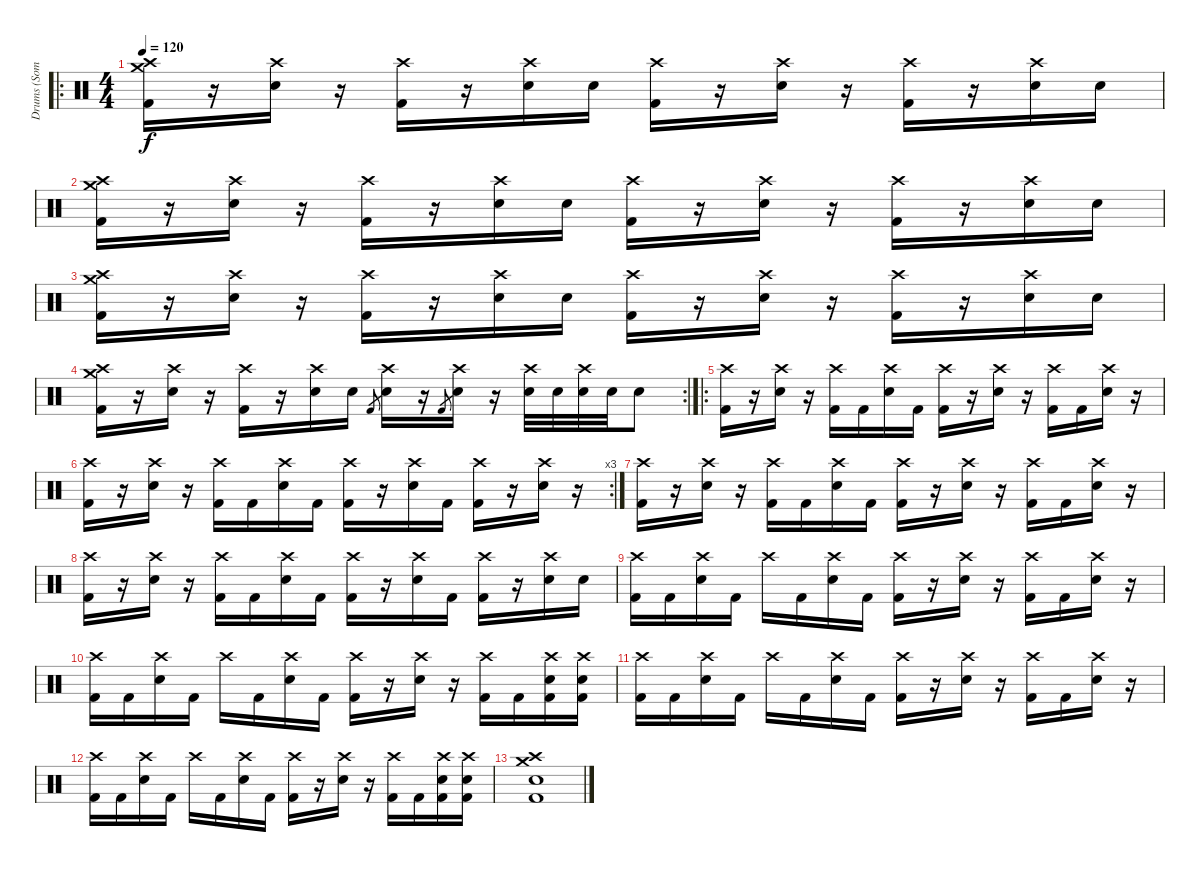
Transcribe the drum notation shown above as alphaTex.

\track ("Drums (Some Person)" "Drums (Som") {instrument percussion}
\staff {score}
\articulation defaults
\ro
\ts (4 4)
\tempo 120
\clef neutral
\ks c
("Crash high (hit)" "Kick (hit) 2" "Crash medium (hit)").16{dy f} r.16 ("Crash high (hit)" "Snare (hit) 2").16 r.16 ("Crash high (hit)" "Kick (hit) 2").16 r.16 ("Crash high (hit)" "Snare (hit) 2").16 "Snare (hit) 2".16 ("Crash high (hit)" "Kick (hit) 2").16 r.16 ("Crash high (hit)" "Snare (hit) 2").16 r.16 ("Crash high (hit)" "Kick (hit) 2").16 r.16 ("Crash high (hit)" "Snare (hit) 2").16 "Snare (hit) 2".16 |
("Crash high (hit)" "Kick (hit) 2" "Crash medium (hit)").16 r.16 ("Crash high (hit)" "Snare (hit) 2").16 r.16 ("Crash high (hit)" "Kick (hit) 2").16 r.16 ("Crash high (hit)" "Snare (hit) 2").16 "Snare (hit) 2".16 ("Crash high (hit)" "Kick (hit) 2").16 r.16 ("Crash high (hit)" "Snare (hit) 2").16 r.16 ("Crash high (hit)" "Kick (hit) 2").16 r.16 ("Crash high (hit)" "Snare (hit) 2").16 "Snare (hit) 2".16 |
("Crash high (hit)" "Kick (hit) 2" "Crash medium (hit)").16 r.16 ("Crash high (hit)" "Snare (hit) 2").16 r.16 ("Crash high (hit)" "Kick (hit) 2").16 r.16 ("Crash high (hit)" "Snare (hit) 2").16 "Snare (hit) 2".16 ("Crash high (hit)" "Kick (hit) 2").16 r.16 ("Crash high (hit)" "Snare (hit) 2").16 r.16 ("Crash high (hit)" "Kick (hit) 2").16 r.16 ("Crash high (hit)" "Snare (hit) 2").16 "Snare (hit) 2".16 |
\rc 2
("Crash high (hit)" "Kick (hit) 2" "Crash medium (hit)").16 r.16 ("Crash high (hit)" "Snare (hit) 2").16 r.16 ("Crash high (hit)" "Kick (hit) 2").16 r.16 ("Crash high (hit)" "Snare (hit) 2").16 "Snare (hit) 2".16 "Kick (hit) 2".8{gr} ("Crash high (hit)" "Snare (hit) 2").16 r.16 "Kick (hit) 2".8{gr} ("Crash high (hit)" "Snare (hit) 2").16 r.16 ("Crash high (hit)" "Snare (hit) 2").32 "Snare (hit) 2".32 ("Crash high (hit)" "Snare (hit) 2").32 "Snare (hit) 2".32 "Snare (hit) 2".8 |
\ro
("Crash high (hit)" "Kick (hit) 2").16 r.16 ("Crash high (hit)" "Snare (hit) 2").16 r.16 ("Crash high (hit)" "Kick (hit) 2").16 "Kick (hit) 2".16 ("Crash high (hit)" "Snare (hit) 2").16 "Kick (hit) 2".16 ("Crash high (hit)" "Kick (hit) 2").16 r.16 ("Crash high (hit)" "Snare (hit) 2").16 r.16 ("Crash high (hit)" "Kick (hit) 2").16 "Kick (hit) 2".16 ("Crash high (hit)" "Snare (hit) 2").16 r.16 |
\rc 3
("Crash high (hit)" "Kick (hit) 2").16 r.16 ("Crash high (hit)" "Snare (hit) 2").16 r.16 ("Crash high (hit)" "Kick (hit) 2").16 "Kick (hit) 2".16 ("Crash high (hit)" "Snare (hit) 2").16 "Kick (hit) 2".16 ("Crash high (hit)" "Kick (hit) 2").16 r.16 ("Crash high (hit)" "Snare (hit) 2").16 "Kick (hit) 2".16 ("Crash high (hit)" "Kick (hit) 2").16 r.16 ("Crash high (hit)" "Snare (hit) 2").16 r.16 |
("Crash high (hit)" "Kick (hit) 2").16 r.16 ("Crash high (hit)" "Snare (hit) 2").16 r.16 ("Crash high (hit)" "Kick (hit) 2").16 "Kick (hit) 2".16 ("Crash high (hit)" "Snare (hit) 2").16 "Kick (hit) 2".16 ("Crash high (hit)" "Kick (hit) 2").16 r.16 ("Crash high (hit)" "Snare (hit) 2").16 r.16 ("Crash high (hit)" "Kick (hit) 2").16 "Kick (hit) 2".16 ("Crash high (hit)" "Snare (hit) 2").16 r.16 |
("Crash high (hit)" "Kick (hit) 2").16 r.16 ("Crash high (hit)" "Snare (hit) 2").16 r.16 ("Crash high (hit)" "Kick (hit) 2").16 "Kick (hit) 2".16 ("Crash high (hit)" "Snare (hit) 2").16 "Kick (hit) 2".16 ("Crash high (hit)" "Kick (hit) 2").16 r.16 ("Crash high (hit)" "Snare (hit) 2").16 "Kick (hit) 2".16 ("Crash high (hit)" "Kick (hit) 2").16 r.16 ("Crash high (hit)" "Snare (hit) 2").16 "Snare (hit) 2".16 |
("Crash high (hit)" "Kick (hit) 2").16 "Kick (hit) 2".16 ("Crash high (hit)" "Snare (hit) 2").16 "Kick (hit) 2".16 "Crash high (hit)".16 "Kick (hit) 2".16 ("Crash high (hit)" "Snare (hit) 2").16 "Kick (hit) 2".16 ("Crash high (hit)" "Kick (hit) 2").16 r.16 ("Crash high (hit)" "Snare (hit) 2").16 r.16 ("Crash high (hit)" "Kick (hit) 2").16 "Kick (hit) 2".16 ("Crash high (hit)" "Snare (hit) 2").16 r.16 |
("Crash high (hit)" "Kick (hit) 2").16 "Kick (hit) 2".16 ("Crash high (hit)" "Snare (hit) 2").16 "Kick (hit) 2".16 "Crash high (hit)".16 "Kick (hit) 2".16 ("Crash high (hit)" "Snare (hit) 2").16 "Kick (hit) 2".16 ("Crash high (hit)" "Kick (hit) 2").16 r.16 ("Crash high (hit)" "Snare (hit) 2").16 r.16 ("Crash high (hit)" "Kick (hit) 2").16 "Kick (hit) 2".16 ("Crash high (hit)" "Snare (hit) 2" "Kick (hit) 2").16 ("Crash high (hit)" "Snare (hit) 2" "Kick (hit) 2").16 |
("Crash high (hit)" "Kick (hit) 2").16 "Kick (hit) 2".16 ("Crash high (hit)" "Snare (hit) 2").16 "Kick (hit) 2".16 "Crash high (hit)".16 "Kick (hit) 2".16 ("Crash high (hit)" "Snare (hit) 2").16 "Kick (hit) 2".16 ("Crash high (hit)" "Kick (hit) 2").16 r.16 ("Crash high (hit)" "Snare (hit) 2").16 r.16 ("Crash high (hit)" "Kick (hit) 2").16 "Kick (hit) 2".16 ("Crash high (hit)" "Snare (hit) 2").16 r.16 |
("Crash high (hit)" "Kick (hit) 2").16 "Kick (hit) 2".16 ("Crash high (hit)" "Snare (hit) 2").16 "Kick (hit) 2".16 "Crash high (hit)".16 "Kick (hit) 2".16 ("Crash high (hit)" "Snare (hit) 2").16 "Kick (hit) 2".16 ("Crash high (hit)" "Kick (hit) 2").16 r.16 ("Crash high (hit)" "Snare (hit) 2").16 r.16 ("Crash high (hit)" "Kick (hit) 2").16 "Kick (hit) 2".16 ("Crash high (hit)" "Snare (hit) 2" "Kick (hit) 2").16 ("Crash high (hit)" "Snare (hit) 2" "Kick (hit) 2").16 |
("Crash medium (hit)" "Crash high (hit)" "Kick (hit) 2" "Snare (hit) 2").1
